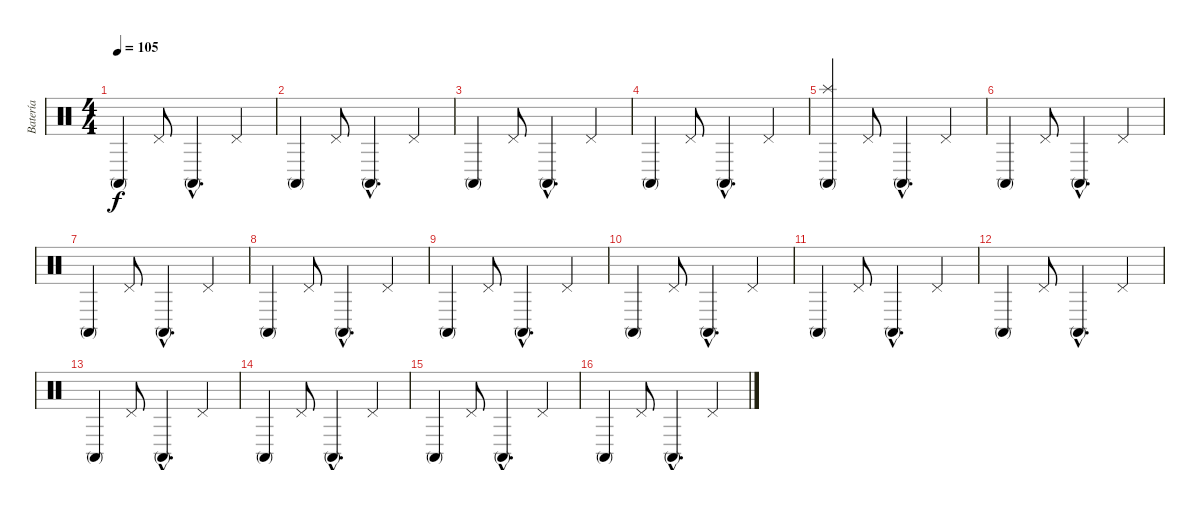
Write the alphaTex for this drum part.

\track ("Batería" "Batería") {instrument percussion}
\staff {score}
\articulation defaults
\ts (4 4)
\tempo 105
\clef neutral
\ks c "Conga high (mute)".4{dy f} "Pedal Hi-Hat (hit)".8 "Conga high (mute)"{hac}.4{d} "Pedal Hi-Hat (hit)".4
|
"Conga high (mute)".4 "Pedal Hi-Hat (hit)".8 "Conga high (mute)"{hac}.4{d} "Pedal Hi-Hat (hit)".4 |
"Conga high (mute)".4 "Pedal Hi-Hat (hit)".8 "Conga high (mute)"{hac}.4{d} "Pedal Hi-Hat (hit)".4 |
"Conga high (mute)".4 "Pedal Hi-Hat (hit)".8 "Conga high (mute)"{hac}.4{d} "Pedal Hi-Hat (hit)".4 |
("Splash (hit)" "Conga high (mute)").4 "Pedal Hi-Hat (hit)".8 "Conga high (mute)"{hac}.4{d} "Pedal Hi-Hat (hit)".4 |
"Conga high (mute)".4 "Pedal Hi-Hat (hit)".8 "Conga high (mute)"{hac}.4{d} "Pedal Hi-Hat (hit)".4 |
"Conga high (mute)".4 "Pedal Hi-Hat (hit)".8 "Conga high (mute)"{hac}.4{d} "Pedal Hi-Hat (hit)".4 |
"Conga high (mute)".4 "Pedal Hi-Hat (hit)".8 "Conga high (mute)"{hac}.4{d} "Pedal Hi-Hat (hit)".4 |
"Conga high (mute)".4 "Pedal Hi-Hat (hit)".8 "Conga high (mute)"{hac}.4{d} "Pedal Hi-Hat (hit)".4 |
"Conga high (mute)".4 "Pedal Hi-Hat (hit)".8 "Conga high (mute)"{hac}.4{d} "Pedal Hi-Hat (hit)".4 |
"Conga high (mute)".4 "Pedal Hi-Hat (hit)".8 "Conga high (mute)"{hac}.4{d} "Pedal Hi-Hat (hit)".4 |
"Conga high (mute)".4 "Pedal Hi-Hat (hit)".8 "Conga high (mute)"{hac}.4{d} "Pedal Hi-Hat (hit)".4 |
"Conga high (mute)".4 "Pedal Hi-Hat (hit)".8 "Conga high (mute)"{hac}.4{d} "Pedal Hi-Hat (hit)".4 |
"Conga high (mute)".4 "Pedal Hi-Hat (hit)".8 "Conga high (mute)"{hac}.4{d} "Pedal Hi-Hat (hit)".4 |
"Conga high (mute)".4 "Pedal Hi-Hat (hit)".8 "Conga high (mute)"{hac}.4{d} "Pedal Hi-Hat (hit)".4 |
"Conga high (mute)".4 "Pedal Hi-Hat (hit)".8 "Conga high (mute)"{hac}.4{d} "Pedal Hi-Hat (hit)".4
